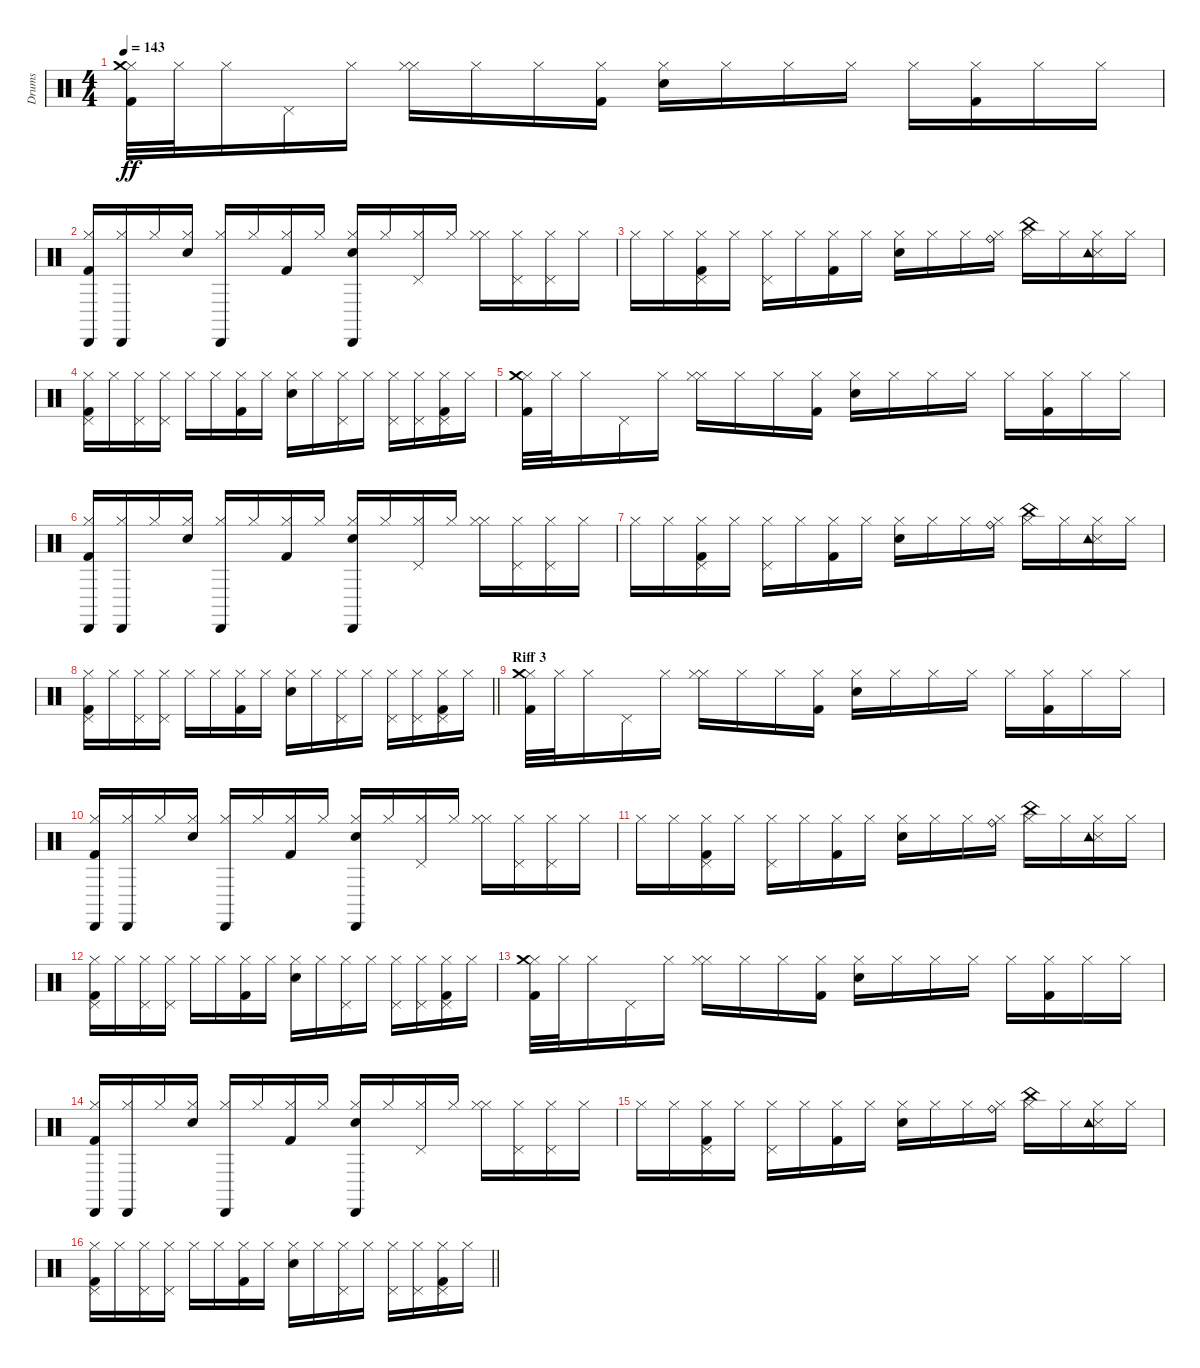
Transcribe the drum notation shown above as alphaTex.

\track ("Drums" "Drums") {instrument percussion}
\staff {score}
\articulation defaults
\ts (4 4)
\tempo 143
\clef neutral
\ks c
("Kick (hit) 2" "Hi-Hat (closed)" "Crash medium (hit)").32{dy ff} "Hi-Hat (closed)".32 "Hi-Hat (closed)".16 "Pedal Hi-Hat (hit)".16 "Hi-Hat (closed)".16 ("Hi-Hat (closed)" "Hi-Hat (closed)").16 "Hi-Hat (closed)".16 "Hi-Hat (closed)".16 ("Kick (hit) 2" "Hi-Hat (closed)").16 ("Snare (hit) 2" "Hi-Hat (closed)").16 "Hi-Hat (closed)".16 "Hi-Hat (closed)".16 "Hi-Hat (closed)".16 "Hi-Hat (closed)".16 ("Kick (hit) 2" "Hi-Hat (closed)").16 "Hi-Hat (closed)".16 "Hi-Hat (closed)".16 |
("Kick (hit) 2" "Cabasa (hit)" "Hi-Hat (closed)").16 ("Cabasa (hit)" "Hi-Hat (closed)").16 "Hi-Hat (closed)".16 ("Snare (hit) 2" "Hi-Hat (closed)").16 ("Cabasa (hit)" "Hi-Hat (closed)").16 "Hi-Hat (closed)".16 ("Kick (hit) 2" "Hi-Hat (closed)").16 "Hi-Hat (closed)".16 ("Snare (hit) 2" "Cabasa (hit)" "Hi-Hat (closed)").16 "Hi-Hat (closed)".16 ("Pedal Hi-Hat (hit)" "Hi-Hat (closed)").16 "Hi-Hat (closed)".16 ("Hi-Hat (closed)" "Hi-Hat (closed)").16 ("Pedal Hi-Hat (hit)" "Hi-Hat (closed)").16 ("Pedal Hi-Hat (hit)" "Hi-Hat (closed)").16 "Hi-Hat (closed)".16 |
"Hi-Hat (closed)".16 "Hi-Hat (closed)".16 ("Kick (hit) 2" "Pedal Hi-Hat (hit)" "Hi-Hat (closed)").16 "Hi-Hat (closed)".16 ("Hi-Hat (closed)" "Pedal Hi-Hat (hit)").16 "Hi-Hat (closed)".16 ("Kick (hit) 2" "Hi-Hat (closed)").16 "Hi-Hat (closed)".16 ("Snare (hit) 2" "Hi-Hat (closed)").16 "Hi-Hat (closed)".16 "Hi-Hat (closed)".16 ("Ride (bell)" "Hi-Hat (closed)").16 ("China (hit)" "Hi-Hat (closed)").16 "Hi-Hat (closed)".16 ("Snare (side stick) 3" "Tambourine (hit)" "Hi-Hat (closed)").16 "Hi-Hat (closed)".16 |
("Kick (hit) 2" "Hi-Hat (closed)" "Pedal Hi-Hat (hit)").16 "Hi-Hat (closed)".16 ("Hi-Hat (closed)" "Pedal Hi-Hat (hit)").16 ("Hi-Hat (closed)" "Pedal Hi-Hat (hit)").16 "Hi-Hat (closed)".16 "Hi-Hat (closed)".16 ("Kick (hit) 2" "Hi-Hat (closed)").16 "Hi-Hat (closed)".16 ("Snare (hit) 2" "Hi-Hat (closed)").16 "Hi-Hat (closed)".16 ("Hi-Hat (closed)" "Pedal Hi-Hat (hit)").16 "Hi-Hat (closed)".16 ("Hi-Hat (closed)" "Pedal Hi-Hat (hit)").16 ("Hi-Hat (closed)" "Pedal Hi-Hat (hit)").16 ("Kick (hit) 2" "Hi-Hat (closed)" "Pedal Hi-Hat (hit)").16 "Hi-Hat (closed)".16 |
("Kick (hit) 2" "Hi-Hat (closed)" "Crash medium (hit)").32 "Hi-Hat (closed)".32 "Hi-Hat (closed)".16 "Pedal Hi-Hat (hit)".16 "Hi-Hat (closed)".16 ("Hi-Hat (closed)" "Hi-Hat (closed)").16 "Hi-Hat (closed)".16 "Hi-Hat (closed)".16 ("Kick (hit) 2" "Hi-Hat (closed)").16 ("Snare (hit) 2" "Hi-Hat (closed)").16 "Hi-Hat (closed)".16 "Hi-Hat (closed)".16 "Hi-Hat (closed)".16 "Hi-Hat (closed)".16 ("Kick (hit) 2" "Hi-Hat (closed)").16 "Hi-Hat (closed)".16 "Hi-Hat (closed)".16 |
("Kick (hit) 2" "Cabasa (hit)" "Hi-Hat (closed)").16 ("Cabasa (hit)" "Hi-Hat (closed)").16 "Hi-Hat (closed)".16 ("Snare (hit) 2" "Hi-Hat (closed)").16 ("Cabasa (hit)" "Hi-Hat (closed)").16 "Hi-Hat (closed)".16 ("Kick (hit) 2" "Hi-Hat (closed)").16 "Hi-Hat (closed)".16 ("Snare (hit) 2" "Cabasa (hit)" "Hi-Hat (closed)").16 "Hi-Hat (closed)".16 ("Pedal Hi-Hat (hit)" "Hi-Hat (closed)").16 "Hi-Hat (closed)".16 ("Hi-Hat (closed)" "Hi-Hat (closed)").16 ("Pedal Hi-Hat (hit)" "Hi-Hat (closed)").16 ("Pedal Hi-Hat (hit)" "Hi-Hat (closed)").16 "Hi-Hat (closed)".16 |
"Hi-Hat (closed)".16 "Hi-Hat (closed)".16 ("Kick (hit) 2" "Pedal Hi-Hat (hit)" "Hi-Hat (closed)").16 "Hi-Hat (closed)".16 ("Hi-Hat (closed)" "Pedal Hi-Hat (hit)").16 "Hi-Hat (closed)".16 ("Kick (hit) 2" "Hi-Hat (closed)").16 "Hi-Hat (closed)".16 ("Snare (hit) 2" "Hi-Hat (closed)").16 "Hi-Hat (closed)".16 "Hi-Hat (closed)".16 ("Ride (bell)" "Hi-Hat (closed)").16 ("China (hit)" "Hi-Hat (closed)").16 "Hi-Hat (closed)".16 ("Snare (side stick) 3" "Tambourine (hit)" "Hi-Hat (closed)").16 "Hi-Hat (closed)".16 |
\barLineRight lightlight
("Kick (hit) 2" "Hi-Hat (closed)" "Pedal Hi-Hat (hit)").16 "Hi-Hat (closed)".16 ("Hi-Hat (closed)" "Pedal Hi-Hat (hit)").16 ("Hi-Hat (closed)" "Pedal Hi-Hat (hit)").16 "Hi-Hat (closed)".16 "Hi-Hat (closed)".16 ("Kick (hit) 2" "Hi-Hat (closed)").16 "Hi-Hat (closed)".16 ("Snare (hit) 2" "Hi-Hat (closed)").16 "Hi-Hat (closed)".16 ("Hi-Hat (closed)" "Pedal Hi-Hat (hit)").16 "Hi-Hat (closed)".16 ("Hi-Hat (closed)" "Pedal Hi-Hat (hit)").16 ("Hi-Hat (closed)" "Pedal Hi-Hat (hit)").16 ("Kick (hit) 2" "Hi-Hat (closed)" "Pedal Hi-Hat (hit)").16 "Hi-Hat (closed)".16 |
\section ("" "Riff 3")
("Kick (hit) 2" "Hi-Hat (closed)" "Crash medium (hit)").32 "Hi-Hat (closed)".32 "Hi-Hat (closed)".16 "Pedal Hi-Hat (hit)".16 "Hi-Hat (closed)".16 ("Hi-Hat (closed)" "Hi-Hat (closed)").16 "Hi-Hat (closed)".16 "Hi-Hat (closed)".16 ("Kick (hit) 2" "Hi-Hat (closed)").16 ("Snare (hit) 2" "Hi-Hat (closed)").16 "Hi-Hat (closed)".16 "Hi-Hat (closed)".16 "Hi-Hat (closed)".16 "Hi-Hat (closed)".16 ("Kick (hit) 2" "Hi-Hat (closed)").16 "Hi-Hat (closed)".16 "Hi-Hat (closed)".16 |
("Kick (hit) 2" "Cabasa (hit)" "Hi-Hat (closed)").16 ("Cabasa (hit)" "Hi-Hat (closed)").16 "Hi-Hat (closed)".16 ("Snare (hit) 2" "Hi-Hat (closed)").16 ("Cabasa (hit)" "Hi-Hat (closed)").16 "Hi-Hat (closed)".16 ("Kick (hit) 2" "Hi-Hat (closed)").16 "Hi-Hat (closed)".16 ("Snare (hit) 2" "Cabasa (hit)" "Hi-Hat (closed)").16 "Hi-Hat (closed)".16 ("Pedal Hi-Hat (hit)" "Hi-Hat (closed)").16 "Hi-Hat (closed)".16 ("Hi-Hat (closed)" "Hi-Hat (closed)").16 ("Pedal Hi-Hat (hit)" "Hi-Hat (closed)").16 ("Pedal Hi-Hat (hit)" "Hi-Hat (closed)").16 "Hi-Hat (closed)".16 |
"Hi-Hat (closed)".16 "Hi-Hat (closed)".16 ("Kick (hit) 2" "Pedal Hi-Hat (hit)" "Hi-Hat (closed)").16 "Hi-Hat (closed)".16 ("Hi-Hat (closed)" "Pedal Hi-Hat (hit)").16 "Hi-Hat (closed)".16 ("Kick (hit) 2" "Hi-Hat (closed)").16 "Hi-Hat (closed)".16 ("Snare (hit) 2" "Hi-Hat (closed)").16 "Hi-Hat (closed)".16 "Hi-Hat (closed)".16 ("Ride (bell)" "Hi-Hat (closed)").16 ("China (hit)" "Hi-Hat (closed)").16 "Hi-Hat (closed)".16 ("Snare (side stick) 3" "Tambourine (hit)" "Hi-Hat (closed)").16 "Hi-Hat (closed)".16 |
("Kick (hit) 2" "Hi-Hat (closed)" "Pedal Hi-Hat (hit)").16 "Hi-Hat (closed)".16 ("Hi-Hat (closed)" "Pedal Hi-Hat (hit)").16 ("Hi-Hat (closed)" "Pedal Hi-Hat (hit)").16 "Hi-Hat (closed)".16 "Hi-Hat (closed)".16 ("Kick (hit) 2" "Hi-Hat (closed)").16 "Hi-Hat (closed)".16 ("Snare (hit) 2" "Hi-Hat (closed)").16 "Hi-Hat (closed)".16 ("Hi-Hat (closed)" "Pedal Hi-Hat (hit)").16 "Hi-Hat (closed)".16 ("Hi-Hat (closed)" "Pedal Hi-Hat (hit)").16 ("Hi-Hat (closed)" "Pedal Hi-Hat (hit)").16 ("Kick (hit) 2" "Hi-Hat (closed)" "Pedal Hi-Hat (hit)").16 "Hi-Hat (closed)".16 |
("Kick (hit) 2" "Hi-Hat (closed)" "Crash medium (hit)").32 "Hi-Hat (closed)".32 "Hi-Hat (closed)".16 "Pedal Hi-Hat (hit)".16 "Hi-Hat (closed)".16 ("Hi-Hat (closed)" "Hi-Hat (closed)").16 "Hi-Hat (closed)".16 "Hi-Hat (closed)".16 ("Kick (hit) 2" "Hi-Hat (closed)").16 ("Snare (hit) 2" "Hi-Hat (closed)").16 "Hi-Hat (closed)".16 "Hi-Hat (closed)".16 "Hi-Hat (closed)".16 "Hi-Hat (closed)".16 ("Kick (hit) 2" "Hi-Hat (closed)").16 "Hi-Hat (closed)".16 "Hi-Hat (closed)".16 |
("Kick (hit) 2" "Cabasa (hit)" "Hi-Hat (closed)").16 ("Cabasa (hit)" "Hi-Hat (closed)").16 "Hi-Hat (closed)".16 ("Snare (hit) 2" "Hi-Hat (closed)").16 ("Cabasa (hit)" "Hi-Hat (closed)").16 "Hi-Hat (closed)".16 ("Kick (hit) 2" "Hi-Hat (closed)").16 "Hi-Hat (closed)".16 ("Snare (hit) 2" "Cabasa (hit)" "Hi-Hat (closed)").16 "Hi-Hat (closed)".16 ("Pedal Hi-Hat (hit)" "Hi-Hat (closed)").16 "Hi-Hat (closed)".16 ("Hi-Hat (closed)" "Hi-Hat (closed)").16 ("Pedal Hi-Hat (hit)" "Hi-Hat (closed)").16 ("Pedal Hi-Hat (hit)" "Hi-Hat (closed)").16 "Hi-Hat (closed)".16 |
"Hi-Hat (closed)".16 "Hi-Hat (closed)".16 ("Kick (hit) 2" "Pedal Hi-Hat (hit)" "Hi-Hat (closed)").16 "Hi-Hat (closed)".16 ("Hi-Hat (closed)" "Pedal Hi-Hat (hit)").16 "Hi-Hat (closed)".16 ("Kick (hit) 2" "Hi-Hat (closed)").16 "Hi-Hat (closed)".16 ("Snare (hit) 2" "Hi-Hat (closed)").16 "Hi-Hat (closed)".16 "Hi-Hat (closed)".16 ("Ride (bell)" "Hi-Hat (closed)").16 ("China (hit)" "Hi-Hat (closed)").16 "Hi-Hat (closed)".16 ("Snare (side stick) 3" "Tambourine (hit)" "Hi-Hat (closed)").16 "Hi-Hat (closed)".16 |
\barLineRight lightlight
("Kick (hit) 2" "Hi-Hat (closed)" "Pedal Hi-Hat (hit)").16 "Hi-Hat (closed)".16 ("Hi-Hat (closed)" "Pedal Hi-Hat (hit)").16 ("Hi-Hat (closed)" "Pedal Hi-Hat (hit)").16 "Hi-Hat (closed)".16 "Hi-Hat (closed)".16 ("Kick (hit) 2" "Hi-Hat (closed)").16 "Hi-Hat (closed)".16 ("Snare (hit) 2" "Hi-Hat (closed)").16 "Hi-Hat (closed)".16 ("Hi-Hat (closed)" "Pedal Hi-Hat (hit)").16 "Hi-Hat (closed)".16 ("Hi-Hat (closed)" "Pedal Hi-Hat (hit)").16 ("Hi-Hat (closed)" "Pedal Hi-Hat (hit)").16 ("Kick (hit) 2" "Hi-Hat (closed)" "Pedal Hi-Hat (hit)").16 "Hi-Hat (closed)".16
